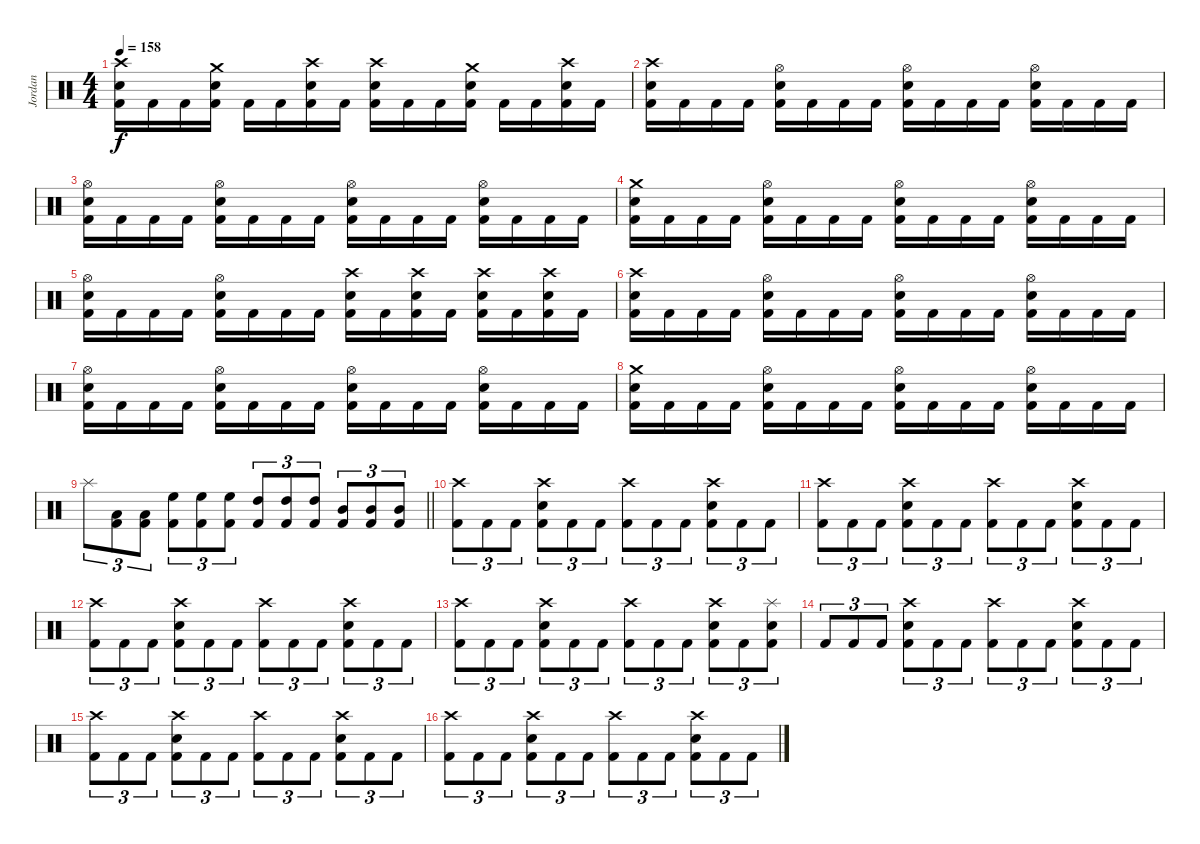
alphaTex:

\track ("Jordan" "Jordan") {instrument percussion}
\staff {score}
\articulation defaults
\ts (4 4)
\tempo 158
\clef neutral
\ks c
("Crash high (hit)" "Electric Snare (hit)" "Kick (hit) 2").16{dy f} "Kick (hit) 2".16 "Kick (hit) 2".16 ("Crash medium (hit)" "Electric Snare (hit)" "Kick (hit) 2").16 "Kick (hit) 2".16 "Kick (hit) 2".16 ("Crash high (hit)" "Electric Snare (hit)" "Kick (hit) 2").16 "Kick (hit) 2".16 ("Crash high (hit)" "Electric Snare (hit)" "Kick (hit) 2").16 "Kick (hit) 2".16 "Kick (hit) 2".16 ("Crash medium (hit)" "Electric Snare (hit)" "Kick (hit) 2").16 "Kick (hit) 2".16 "Kick (hit) 2".16 ("Crash high (hit)" "Electric Snare (hit)" "Kick (hit) 2").16 "Kick (hit) 2".16 |
("Crash high (hit)" "Electric Snare (hit)" "Kick (hit) 2").16 "Kick (hit) 2".16 "Kick (hit) 2".16 "Kick (hit) 2".16 ("Hi-Hat (open)" "Electric Snare (hit)" "Kick (hit) 2").16 "Kick (hit) 2".16 "Kick (hit) 2".16 "Kick (hit) 2".16 ("Hi-Hat (open)" "Electric Snare (hit)" "Kick (hit) 2").16 "Kick (hit) 2".16 "Kick (hit) 2".16 "Kick (hit) 2".16 ("Hi-Hat (open)" "Electric Snare (hit)" "Kick (hit) 2").16 "Kick (hit) 2".16 "Kick (hit) 2".16 "Kick (hit) 2".16 |
("Hi-Hat (open)" "Electric Snare (hit)" "Kick (hit) 2").16 "Kick (hit) 2".16 "Kick (hit) 2".16 "Kick (hit) 2".16 ("Hi-Hat (open)" "Electric Snare (hit)" "Kick (hit) 2").16 "Kick (hit) 2".16 "Kick (hit) 2".16 "Kick (hit) 2".16 ("Hi-Hat (open)" "Electric Snare (hit)" "Kick (hit) 2").16 "Kick (hit) 2".16 "Kick (hit) 2".16 "Kick (hit) 2".16 ("Hi-Hat (open)" "Electric Snare (hit)" "Kick (hit) 2").16 "Kick (hit) 2".16 "Kick (hit) 2".16 "Kick (hit) 2".16 |
("Crash medium (hit)" "Electric Snare (hit)" "Kick (hit) 2").16 "Kick (hit) 2".16 "Kick (hit) 2".16 "Kick (hit) 2".16 ("Hi-Hat (open)" "Electric Snare (hit)" "Kick (hit) 2").16 "Kick (hit) 2".16 "Kick (hit) 2".16 "Kick (hit) 2".16 ("Hi-Hat (open)" "Electric Snare (hit)" "Kick (hit) 2").16 "Kick (hit) 2".16 "Kick (hit) 2".16 "Kick (hit) 2".16 ("Hi-Hat (open)" "Electric Snare (hit)" "Kick (hit) 2").16 "Kick (hit) 2".16 "Kick (hit) 2".16 "Kick (hit) 2".16 |
("Hi-Hat (open)" "Electric Snare (hit)" "Kick (hit) 2").16 "Kick (hit) 2".16 "Kick (hit) 2".16 "Kick (hit) 2".16 ("Hi-Hat (open)" "Electric Snare (hit)" "Kick (hit) 2").16 "Kick (hit) 2".16 "Kick (hit) 2".16 "Kick (hit) 2".16 ("Crash high (hit)" "Electric Snare (hit)" "Kick (hit) 2").16 "Kick (hit) 2".16 ("Crash high (hit)" "Electric Snare (hit)" "Kick (hit) 2").16 "Kick (hit) 2".16 ("Crash high (hit)" "Electric Snare (hit)" "Kick (hit) 2").16 "Kick (hit) 2".16 ("Crash high (hit)" "Electric Snare (hit)" "Kick (hit) 2").16 "Kick (hit) 2".16 |
("Crash high (hit)" "Electric Snare (hit)" "Kick (hit) 2").16 "Kick (hit) 2".16 "Kick (hit) 2".16 "Kick (hit) 2".16 ("Hi-Hat (open)" "Electric Snare (hit)" "Kick (hit) 2").16 "Kick (hit) 2".16 "Kick (hit) 2".16 "Kick (hit) 2".16 ("Hi-Hat (open)" "Electric Snare (hit)" "Kick (hit) 2").16 "Kick (hit) 2".16 "Kick (hit) 2".16 "Kick (hit) 2".16 ("Hi-Hat (open)" "Electric Snare (hit)" "Kick (hit) 2").16 "Kick (hit) 2".16 "Kick (hit) 2".16 "Kick (hit) 2".16 |
("Hi-Hat (open)" "Electric Snare (hit)" "Kick (hit) 2").16 "Kick (hit) 2".16 "Kick (hit) 2".16 "Kick (hit) 2".16 ("Hi-Hat (open)" "Electric Snare (hit)" "Kick (hit) 2").16 "Kick (hit) 2".16 "Kick (hit) 2".16 "Kick (hit) 2".16 ("Hi-Hat (open)" "Electric Snare (hit)" "Kick (hit) 2").16 "Kick (hit) 2".16 "Kick (hit) 2".16 "Kick (hit) 2".16 ("Hi-Hat (open)" "Electric Snare (hit)" "Kick (hit) 2").16 "Kick (hit) 2".16 "Kick (hit) 2".16 "Kick (hit) 2".16 |
("Crash medium (hit)" "Electric Snare (hit)" "Kick (hit) 2").16 "Kick (hit) 2".16 "Kick (hit) 2".16 "Kick (hit) 2".16 ("Hi-Hat (open)" "Electric Snare (hit)" "Kick (hit) 2").16 "Kick (hit) 2".16 "Kick (hit) 2".16 "Kick (hit) 2".16 ("Hi-Hat (open)" "Electric Snare (hit)" "Kick (hit) 2").16 "Kick (hit) 2".16 "Kick (hit) 2".16 "Kick (hit) 2".16 ("Hi-Hat (open)" "Electric Snare (hit)" "Kick (hit) 2").16 "Kick (hit) 2".16 "Kick (hit) 2".16 "Kick (hit) 2".16 |
\barLineRight lightlight "Splash (hit)".8{tu (3 2)}
("Low Tom (hit)" "Kick (hit) 2").8{tu (3 2)} ("Low Tom (hit)" "Kick (hit) 2").8{tu (3 2)} ("High Floor Tom (hit)" "Kick (hit) 2").8{tu (3 2)} ("High Floor Tom (hit)" "Kick (hit) 2").8{tu (3 2)} ("High Floor Tom (hit)" "Kick (hit) 2").8{tu (3 2)} ("High Tom (hit)" "Kick (hit) 2").8{tu (3 2)} ("High Tom (hit)" "Kick (hit) 2").8{tu (3 2)} ("High Tom (hit)" "Kick (hit) 2").8{tu (3 2)} ("Mid Tom (hit)" "Kick (hit) 2").8{tu (3 2)} ("Mid Tom (hit)" "Kick (hit) 2").8{tu (3 2)} ("Mid Tom (hit)" "Kick (hit) 2").8{tu (3 2)} |
("Crash high (hit)" "Kick (hit) 2").8{tu (3 2)} "Kick (hit) 2".8{tu (3 2)} "Kick (hit) 2".8{tu (3 2)} ("Crash high (hit)" "Electric Snare (hit)" "Kick (hit) 2").8{tu (3 2)} "Kick (hit) 2".8{tu (3 2)} "Kick (hit) 2".8{tu (3 2)} ("Crash high (hit)" "Kick (hit) 2").8{tu (3 2)} "Kick (hit) 2".8{tu (3 2)} "Kick (hit) 2".8{tu (3 2)} ("Crash high (hit)" "Electric Snare (hit)" "Kick (hit) 2").8{tu (3 2)} "Kick (hit) 2".8{tu (3 2)} "Kick (hit) 2".8{tu (3 2)} |
("Crash high (hit)" "Kick (hit) 2").8{tu (3 2)} "Kick (hit) 2".8{tu (3 2)} "Kick (hit) 2".8{tu (3 2)} ("Crash high (hit)" "Electric Snare (hit)" "Kick (hit) 2").8{tu (3 2)} "Kick (hit) 2".8{tu (3 2)} "Kick (hit) 2".8{tu (3 2)} ("Crash high (hit)" "Kick (hit) 2").8{tu (3 2)} "Kick (hit) 2".8{tu (3 2)} "Kick (hit) 2".8{tu (3 2)} ("Crash high (hit)" "Electric Snare (hit)" "Kick (hit) 2").8{tu (3 2)} "Kick (hit) 2".8{tu (3 2)} "Kick (hit) 2".8{tu (3 2)} |
("Crash high (hit)" "Kick (hit) 2").8{tu (3 2)} "Kick (hit) 2".8{tu (3 2)} "Kick (hit) 2".8{tu (3 2)} ("Crash high (hit)" "Electric Snare (hit)" "Kick (hit) 2").8{tu (3 2)} "Kick (hit) 2".8{tu (3 2)} "Kick (hit) 2".8{tu (3 2)} ("Crash high (hit)" "Kick (hit) 2").8{tu (3 2)} "Kick (hit) 2".8{tu (3 2)} "Kick (hit) 2".8{tu (3 2)} ("Crash high (hit)" "Electric Snare (hit)" "Kick (hit) 2").8{tu (3 2)} "Kick (hit) 2".8{tu (3 2)} "Kick (hit) 2".8{tu (3 2)} |
("Crash high (hit)" "Kick (hit) 2").8{tu (3 2)} "Kick (hit) 2".8{tu (3 2)} "Kick (hit) 2".8{tu (3 2)} ("Crash high (hit)" "Electric Snare (hit)" "Kick (hit) 2").8{tu (3 2)} "Kick (hit) 2".8{tu (3 2)} "Kick (hit) 2".8{tu (3 2)} ("Crash high (hit)" "Kick (hit) 2").8{tu (3 2)} "Kick (hit) 2".8{tu (3 2)} "Kick (hit) 2".8{tu (3 2)} ("Crash high (hit)" "Electric Snare (hit)" "Kick (hit) 2").8{tu (3 2)} "Kick (hit) 2".8{tu (3 2)} ("Splash (hit)" "Electric Snare (hit)" "Kick (hit) 2").8{tu (3 2)} |
"Kick (hit) 2".8{tu (3 2)} "Kick (hit) 2".8{tu (3 2)} "Kick (hit) 2".8{tu (3 2)} ("Crash high (hit)" "Electric Snare (hit)" "Kick (hit) 2").8{tu (3 2)} "Kick (hit) 2".8{tu (3 2)} "Kick (hit) 2".8{tu (3 2)} ("Crash high (hit)" "Kick (hit) 2").8{tu (3 2)} "Kick (hit) 2".8{tu (3 2)} "Kick (hit) 2".8{tu (3 2)} ("Crash high (hit)" "Electric Snare (hit)" "Kick (hit) 2").8{tu (3 2)} "Kick (hit) 2".8{tu (3 2)} "Kick (hit) 2".8{tu (3 2)} |
("Crash high (hit)" "Kick (hit) 2").8{tu (3 2)} "Kick (hit) 2".8{tu (3 2)} "Kick (hit) 2".8{tu (3 2)} ("Crash high (hit)" "Electric Snare (hit)" "Kick (hit) 2").8{tu (3 2)} "Kick (hit) 2".8{tu (3 2)} "Kick (hit) 2".8{tu (3 2)} ("Crash high (hit)" "Kick (hit) 2").8{tu (3 2)} "Kick (hit) 2".8{tu (3 2)} "Kick (hit) 2".8{tu (3 2)} ("Crash high (hit)" "Electric Snare (hit)" "Kick (hit) 2").8{tu (3 2)} "Kick (hit) 2".8{tu (3 2)} "Kick (hit) 2".8{tu (3 2)} |
("Crash high (hit)" "Kick (hit) 2").8{tu (3 2)} "Kick (hit) 2".8{tu (3 2)} "Kick (hit) 2".8{tu (3 2)} ("Crash high (hit)" "Electric Snare (hit)" "Kick (hit) 2").8{tu (3 2)} "Kick (hit) 2".8{tu (3 2)} "Kick (hit) 2".8{tu (3 2)} ("Crash high (hit)" "Kick (hit) 2").8{tu (3 2)} "Kick (hit) 2".8{tu (3 2)} "Kick (hit) 2".8{tu (3 2)} ("Crash high (hit)" "Electric Snare (hit)" "Kick (hit) 2").8{tu (3 2)} "Kick (hit) 2".8{tu (3 2)} "Kick (hit) 2".8{tu (3 2)}
